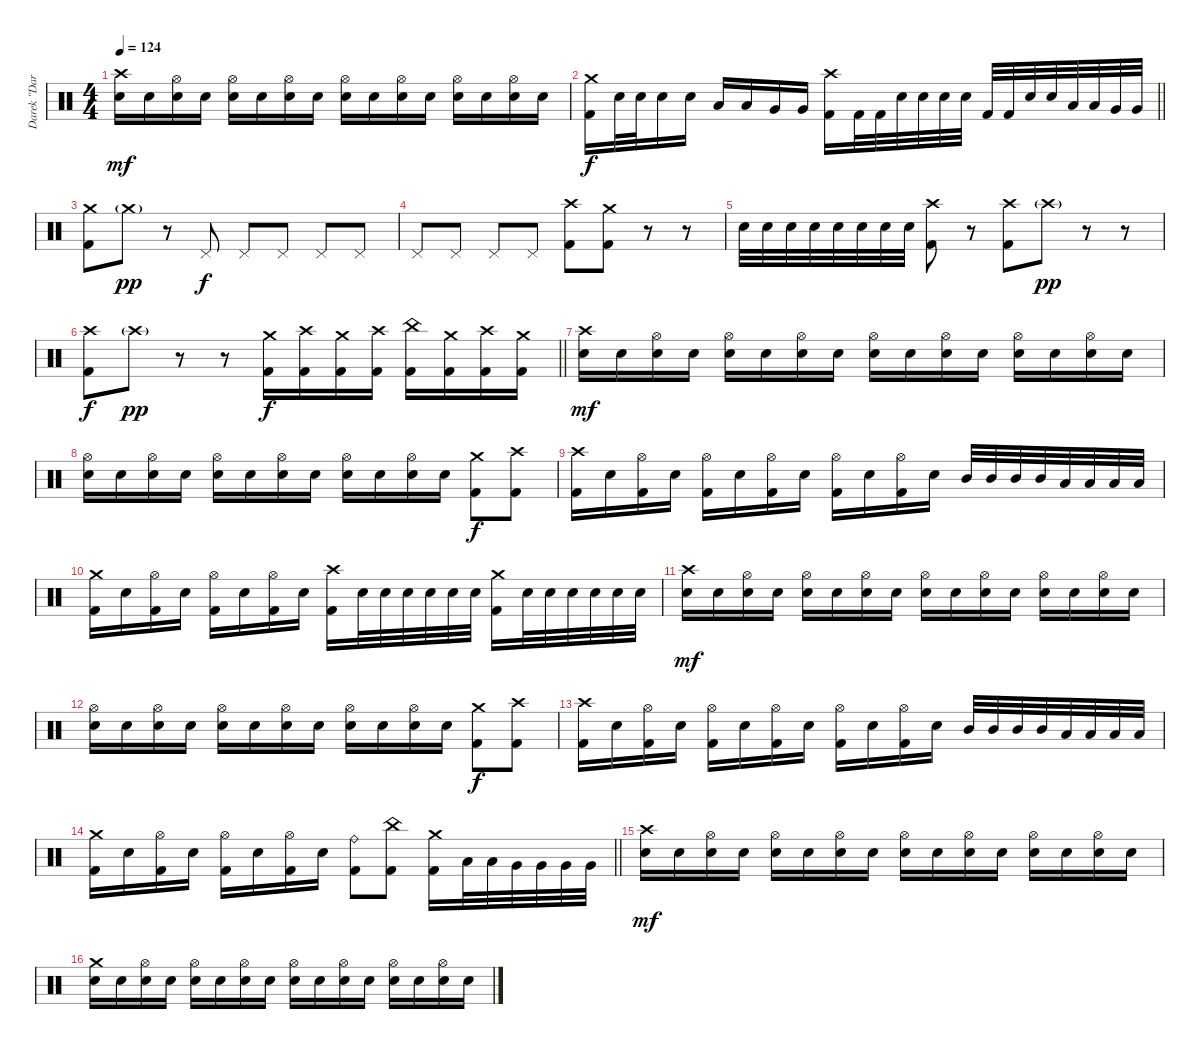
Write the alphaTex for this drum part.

\track ("Darek \"Daray\" Brzozowski " "Darek \"Dar") {instrument percussion}
\staff {score}
\articulation defaults
\ts (4 4)
\tempo 124
\clef neutral
\ks c
("Crash high (hit)" "Electric Snare (hit)").16{dy mf} "Electric Snare (hit)".16 ("Hi-Hat (open)" "Electric Snare (hit)").16 "Electric Snare (hit)".16 ("Hi-Hat (open)" "Electric Snare (hit)").16 "Electric Snare (hit)".16 ("Hi-Hat (open)" "Electric Snare (hit)").16 "Electric Snare (hit)".16 ("Hi-Hat (open)" "Electric Snare (hit)").16 "Electric Snare (hit)".16 ("Hi-Hat (open)" "Electric Snare (hit)").16 "Electric Snare (hit)".16 ("Hi-Hat (open)" "Electric Snare (hit)").16 "Electric Snare (hit)".16 ("Hi-Hat (open)" "Electric Snare (hit)").16 "Electric Snare (hit)".16 |
\barLineRight lightlight
("Crash medium (hit)" "Kick (hit) 2").16{dy f} "Electric Snare (hit)".32 "Electric Snare (hit)".32 "Electric Snare (hit)".16 "Electric Snare (hit)".16 "Low Tom (hit)".16 "Low Tom (hit)".16 "Very Low Tom (hit)".16 "Very Low Tom (hit)".16 ("Crash high (hit)" "Kick (hit) 2").16 "Kick (hit) 2".32 "Kick (hit) 2".32 "Electric Snare (hit)".32 "Electric Snare (hit)".32 "Electric Snare (hit)".32 "Electric Snare (hit)".32 "Kick (hit) 2".32 "Kick (hit) 2".32 "Electric Snare (hit)".32 "Electric Snare (hit)".32 "Low Tom (hit)".32 "Low Tom (hit)".32 "Very Low Tom (hit)".32 "Very Low Tom (hit)".32 |
("Crash medium (hit)" "Kick (hit) 2").8 "Crash medium (hit)"{g}.8{dy pp} r.8 "Pedal Hi-Hat (hit)".8{dy f} "Pedal Hi-Hat (hit)".8 "Pedal Hi-Hat (hit)".8 "Pedal Hi-Hat (hit)".8 "Pedal Hi-Hat (hit)".8 |
"Pedal Hi-Hat (hit)".8 "Pedal Hi-Hat (hit)".8 "Pedal Hi-Hat (hit)".8 "Pedal Hi-Hat (hit)".8 ("Crash high (hit)" "Kick (hit) 2").8 ("Crash medium (hit)" "Kick (hit) 2").8 r.8 r.8 |
"Electric Snare (hit)".32 "Electric Snare (hit)".32 "Electric Snare (hit)".32 "Electric Snare (hit)".32 "Electric Snare (hit)".32 "Electric Snare (hit)".32 "Electric Snare (hit)".32 "Electric Snare (hit)".32 ("Crash high (hit)" "Kick (hit) 2").8 r.8 ("Crash high (hit)" "Kick (hit) 2").8 "Crash high (hit)"{g}.8{dy pp} r.8 r.8 |
\barLineRight lightlight
("Crash high (hit)" "Kick (hit) 2").8{dy f} "Crash high (hit)"{g}.8{dy pp} r.8 r.8 ("Crash medium (hit)" "Kick (hit) 2").16{dy f} ("Crash high (hit)" "Kick (hit) 2").16 ("Crash medium (hit)" "Kick (hit) 2").16 ("Crash high (hit)" "Kick (hit) 2").16 ("China (hit)" "Kick (hit) 2").16 ("Crash medium (hit)" "Kick (hit) 2").16 ("Crash high (hit)" "Kick (hit) 2").16 ("Crash medium (hit)" "Kick (hit) 2").16 |
("Crash high (hit)" "Electric Snare (hit)").16{dy mf} "Electric Snare (hit)".16 ("Hi-Hat (open)" "Electric Snare (hit)").16 "Electric Snare (hit)".16 ("Hi-Hat (open)" "Electric Snare (hit)").16 "Electric Snare (hit)".16 ("Hi-Hat (open)" "Electric Snare (hit)").16 "Electric Snare (hit)".16 ("Hi-Hat (open)" "Electric Snare (hit)").16 "Electric Snare (hit)".16 ("Hi-Hat (open)" "Electric Snare (hit)").16 "Electric Snare (hit)".16 ("Hi-Hat (open)" "Electric Snare (hit)").16 "Electric Snare (hit)".16 ("Hi-Hat (open)" "Electric Snare (hit)").16 "Electric Snare (hit)".16 |
("Hi-Hat (open)" "Electric Snare (hit)").16 "Electric Snare (hit)".16 ("Hi-Hat (open)" "Electric Snare (hit)").16 "Electric Snare (hit)".16 ("Hi-Hat (open)" "Electric Snare (hit)").16 "Electric Snare (hit)".16 ("Hi-Hat (open)" "Electric Snare (hit)").16 "Electric Snare (hit)".16 ("Hi-Hat (open)" "Electric Snare (hit)").16 "Electric Snare (hit)".16 ("Hi-Hat (open)" "Electric Snare (hit)").16 "Electric Snare (hit)".16 ("Crash medium (hit)" "Kick (hit) 2").8{dy f} ("Crash high (hit)" "Kick (hit) 2").8 |
("Crash high (hit)" "Kick (hit) 2").16 "Electric Snare (hit)".16 ("Hi-Hat (open)" "Kick (hit) 2").16 "Electric Snare (hit)".16 ("Hi-Hat (open)" "Kick (hit) 2").16 "Electric Snare (hit)".16 ("Hi-Hat (open)" "Kick (hit) 2").16 "Electric Snare (hit)".16 ("Hi-Hat (open)" "Kick (hit) 2").16 "Electric Snare (hit)".16 ("Hi-Hat (open)" "Kick (hit) 2").16 "Electric Snare (hit)".16 "Mid Tom (hit)".32 "Mid Tom (hit)".32 "Mid Tom (hit)".32 "Mid Tom (hit)".32 "Low Tom (hit)".32 "Low Tom (hit)".32 "Low Tom (hit)".32 "Low Tom (hit)".32 |
("Crash medium (hit)" "Kick (hit) 2").16 "Electric Snare (hit)".16 ("Hi-Hat (open)" "Kick (hit) 2").16 "Electric Snare (hit)".16 ("Hi-Hat (open)" "Kick (hit) 2").16 "Electric Snare (hit)".16 ("Hi-Hat (open)" "Kick (hit) 2").16 "Electric Snare (hit)".16 ("Crash high (hit)" "Kick (hit) 2").16 "Electric Snare (hit)".32 "Electric Snare (hit)".32 "Electric Snare (hit)".32 "Electric Snare (hit)".32 "Electric Snare (hit)".32 "Electric Snare (hit)".32 ("Crash medium (hit)" "Kick (hit) 2").16 "Electric Snare (hit)".32 "Electric Snare (hit)".32 "Electric Snare (hit)".32 "Electric Snare (hit)".32 "Electric Snare (hit)".32 "Electric Snare (hit)".32 |
("Crash high (hit)" "Electric Snare (hit)").16{dy mf} "Electric Snare (hit)".16 ("Hi-Hat (open)" "Electric Snare (hit)").16 "Electric Snare (hit)".16 ("Hi-Hat (open)" "Electric Snare (hit)").16 "Electric Snare (hit)".16 ("Hi-Hat (open)" "Electric Snare (hit)").16 "Electric Snare (hit)".16 ("Hi-Hat (open)" "Electric Snare (hit)").16 "Electric Snare (hit)".16 ("Hi-Hat (open)" "Electric Snare (hit)").16 "Electric Snare (hit)".16 ("Hi-Hat (open)" "Electric Snare (hit)").16 "Electric Snare (hit)".16 ("Hi-Hat (open)" "Electric Snare (hit)").16 "Electric Snare (hit)".16 |
("Hi-Hat (open)" "Electric Snare (hit)").16 "Electric Snare (hit)".16 ("Hi-Hat (open)" "Electric Snare (hit)").16 "Electric Snare (hit)".16 ("Hi-Hat (open)" "Electric Snare (hit)").16 "Electric Snare (hit)".16 ("Hi-Hat (open)" "Electric Snare (hit)").16 "Electric Snare (hit)".16 ("Hi-Hat (open)" "Electric Snare (hit)").16 "Electric Snare (hit)".16 ("Hi-Hat (open)" "Electric Snare (hit)").16 "Electric Snare (hit)".16 ("Crash medium (hit)" "Kick (hit) 2").8{dy f} ("Crash high (hit)" "Kick (hit) 2").8 |
("Crash high (hit)" "Kick (hit) 2").16 "Electric Snare (hit)".16 ("Hi-Hat (open)" "Kick (hit) 2").16 "Electric Snare (hit)".16 ("Hi-Hat (open)" "Kick (hit) 2").16 "Electric Snare (hit)".16 ("Hi-Hat (open)" "Kick (hit) 2").16 "Electric Snare (hit)".16 ("Hi-Hat (open)" "Kick (hit) 2").16 "Electric Snare (hit)".16 ("Hi-Hat (open)" "Kick (hit) 2").16 "Electric Snare (hit)".16 "Mid Tom (hit)".32 "Mid Tom (hit)".32 "Mid Tom (hit)".32 "Mid Tom (hit)".32 "Low Tom (hit)".32 "Low Tom (hit)".32 "Low Tom (hit)".32 "Low Tom (hit)".32 |
\barLineRight lightlight
("Crash medium (hit)" "Kick (hit) 2").16 "Electric Snare (hit)".16 ("Hi-Hat (open)" "Kick (hit) 2").16 "Electric Snare (hit)".16 ("Hi-Hat (open)" "Kick (hit) 2").16 "Electric Snare (hit)".16 ("Hi-Hat (open)" "Kick (hit) 2").16 "Electric Snare (hit)".16 ("Ride (bell)" "Kick (hit) 2").8 ("China (hit)" "Kick (hit) 2").8 ("Crash medium (hit)" "Kick (hit) 2").16 "Low Tom (hit)".32 "Low Tom (hit)".32 "Very Low Tom (hit)".32 "Very Low Tom (hit)".32 "Very Low Tom (hit)".32 "Very Low Tom (hit)".32 |
("Crash high (hit)" "Electric Snare (hit)").16{dy mf} "Electric Snare (hit)".16 ("Hi-Hat (open)" "Electric Snare (hit)").16 "Electric Snare (hit)".16 ("Hi-Hat (open)" "Electric Snare (hit)").16 "Electric Snare (hit)".16 ("Hi-Hat (open)" "Electric Snare (hit)").16 "Electric Snare (hit)".16 ("Hi-Hat (open)" "Electric Snare (hit)").16 "Electric Snare (hit)".16 ("Hi-Hat (open)" "Electric Snare (hit)").16 "Electric Snare (hit)".16 ("Hi-Hat (open)" "Electric Snare (hit)").16 "Electric Snare (hit)".16 ("Hi-Hat (open)" "Electric Snare (hit)").16 "Electric Snare (hit)".16 |
("Crash medium (hit)" "Electric Snare (hit)").16 "Electric Snare (hit)".16 ("Hi-Hat (open)" "Electric Snare (hit)").16 "Electric Snare (hit)".16 ("Hi-Hat (open)" "Electric Snare (hit)").16 "Electric Snare (hit)".16 ("Hi-Hat (open)" "Electric Snare (hit)").16 "Electric Snare (hit)".16 ("Hi-Hat (open)" "Electric Snare (hit)").16 "Electric Snare (hit)".16 ("Hi-Hat (open)" "Electric Snare (hit)").16 "Electric Snare (hit)".16 ("Hi-Hat (open)" "Electric Snare (hit)").16 "Electric Snare (hit)".16 ("Hi-Hat (open)" "Electric Snare (hit)").16 "Electric Snare (hit)".16
